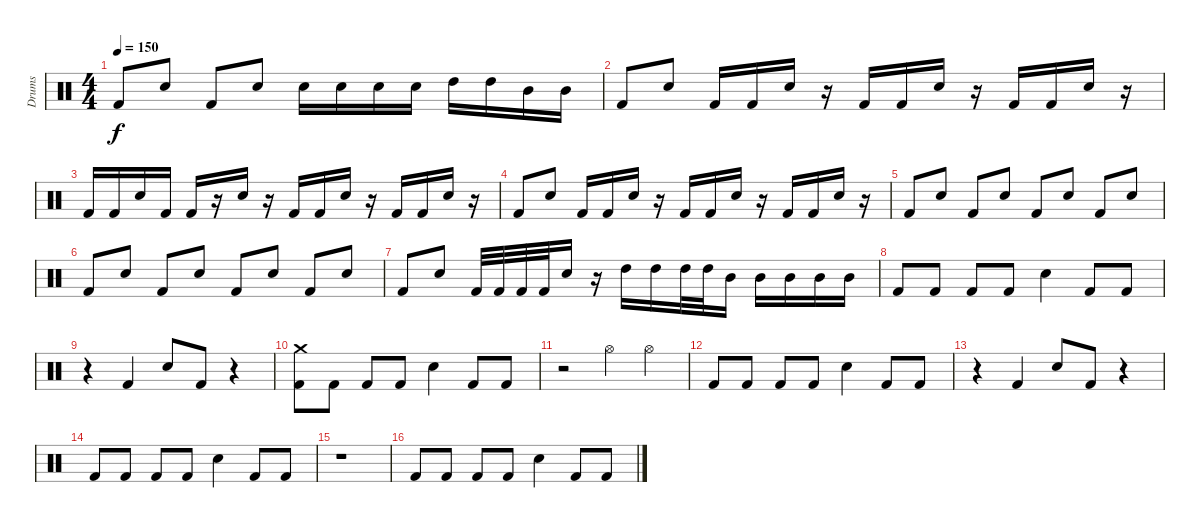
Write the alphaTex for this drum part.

\track ("Drums" "Drums") {instrument percussion}
\staff {score}
\articulation defaults
\ts (4 4)
\tempo 150
\clef neutral
\ks c "Kick (hit) 2".8{dy f} "Snare (hit) 2".8 "Kick (hit) 2".8 "Snare (hit) 2".8 "Snare (hit) 2".16 "Snare (hit) 2".16 "Snare (hit) 2".16 "Snare (hit) 2".16 "High Tom (hit)".16 "High Tom (hit)".16 "Mid Tom (hit)".16 "Mid Tom (hit)".16
|
"Kick (hit) 2".8 "Snare (hit) 2".8 "Kick (hit) 2".16 "Kick (hit) 2".16 "Snare (hit) 2".16 r.16 "Kick (hit) 2".16 "Kick (hit) 2".16 "Snare (hit) 2".16 r.16 "Kick (hit) 2".16 "Kick (hit) 2".16 "Snare (hit) 2".16 r.16 |
"Kick (hit) 2".16 "Kick (hit) 2".16 "Snare (hit) 2".16 "Kick (hit) 2".16 "Kick (hit) 2".16 r.16 "Snare (hit) 2".16 r.16 "Kick (hit) 2".16 "Kick (hit) 2".16 "Snare (hit) 2".16 r.16 "Kick (hit) 2".16 "Kick (hit) 2".16 "Snare (hit) 2".16 r.16 |
"Kick (hit) 2".8 "Snare (hit) 2".8 "Kick (hit) 2".16 "Kick (hit) 2".16 "Snare (hit) 2".16 r.16 "Kick (hit) 2".16 "Kick (hit) 2".16 "Snare (hit) 2".16 r.16 "Kick (hit) 2".16 "Kick (hit) 2".16 "Snare (hit) 2".16 r.16 |
"Kick (hit) 2".8 "Snare (hit) 2".8 "Kick (hit) 2".8 "Snare (hit) 2".8 "Kick (hit) 2".8 "Snare (hit) 2".8 "Kick (hit) 2".8 "Snare (hit) 2".8 |
"Kick (hit) 2".8 "Snare (hit) 2".8 "Kick (hit) 2".8 "Snare (hit) 2".8 "Kick (hit) 2".8 "Snare (hit) 2".8 "Kick (hit) 2".8 "Snare (hit) 2".8 |
"Kick (hit) 2".8 "Snare (hit) 2".8 "Kick (hit) 2".32 "Kick (hit) 2".32 "Kick (hit) 2".32 "Kick (hit) 2".32 "Snare (hit) 2".16 r.16 "High Tom (hit)".16 "High Tom (hit)".16 "High Tom (hit)".32 "High Tom (hit)".32 "Mid Tom (hit)".16 "Mid Tom (hit)".16 "Mid Tom (hit)".16 "Mid Tom (hit)".16 "Mid Tom (hit)".16 |
"Kick (hit) 2".8 "Kick (hit) 2".8 "Kick (hit) 2".8 "Kick (hit) 2".8 "Snare (hit) 2".4 "Kick (hit) 2".8 "Kick (hit) 2".8 |
r.4 "Kick (hit) 2".4 "Snare (hit) 2".8 "Kick (hit) 2".8 r.4 |
("Crash medium (hit)" "Kick (hit) 2").8 "Kick (hit) 2".8 "Kick (hit) 2".8 "Kick (hit) 2".8 "Snare (hit) 2".4 "Kick (hit) 2".8 "Kick (hit) 2".8 |
r.2 "Hi-Hat (open)".4 "Hi-Hat (open)".4 |
"Kick (hit) 2".8 "Kick (hit) 2".8 "Kick (hit) 2".8 "Kick (hit) 2".8 "Snare (hit) 2".4 "Kick (hit) 2".8 "Kick (hit) 2".8 |
r.4 "Kick (hit) 2".4 "Snare (hit) 2".8 "Kick (hit) 2".8 r.4 |
"Kick (hit) 2".8 "Kick (hit) 2".8 "Kick (hit) 2".8 "Kick (hit) 2".8 "Snare (hit) 2".4 "Kick (hit) 2".8 "Kick (hit) 2".8 |
r.1 |
"Kick (hit) 2".8 "Kick (hit) 2".8 "Kick (hit) 2".8 "Kick (hit) 2".8 "Snare (hit) 2".4 "Kick (hit) 2".8 "Kick (hit) 2".8
